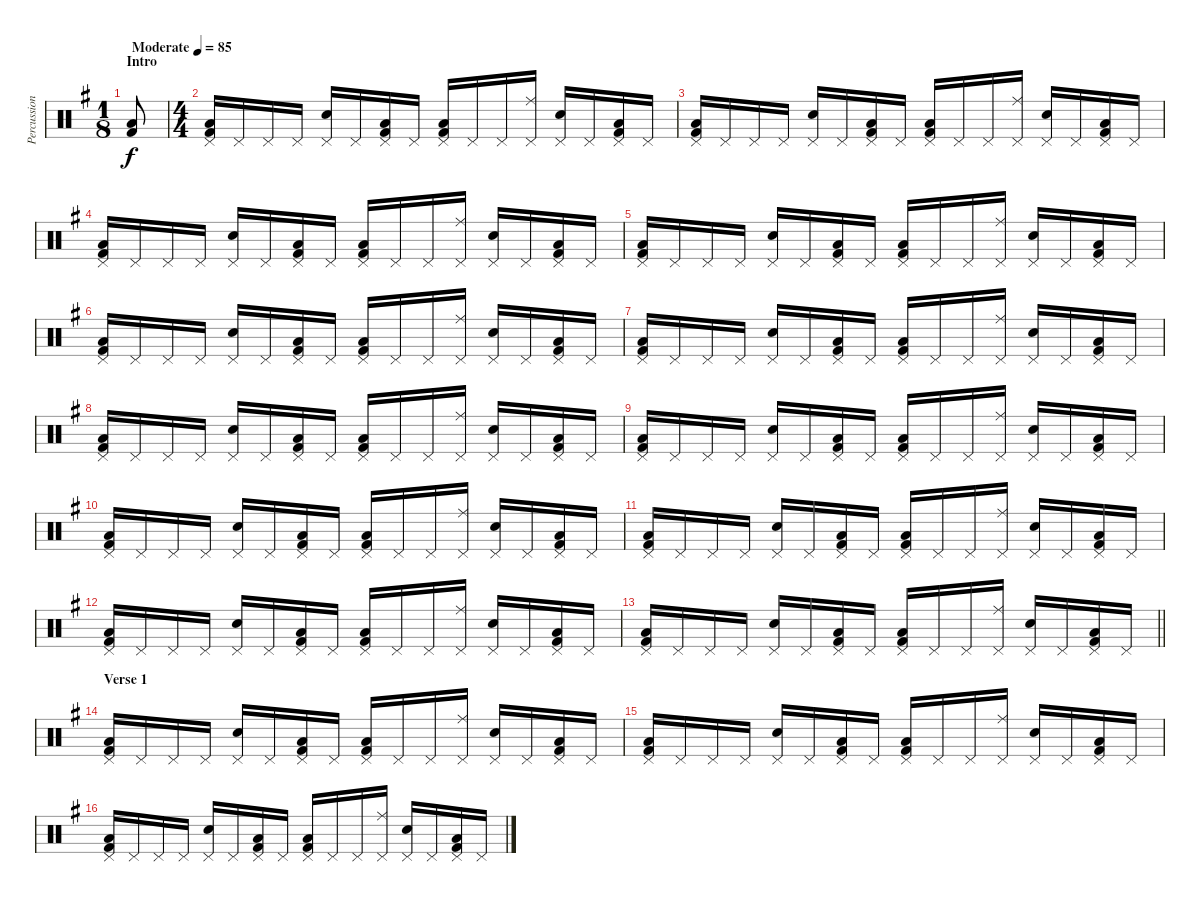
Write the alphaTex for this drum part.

\track ("Percussion" "Percussion") {instrument percussion}
\staff {score}
\articulation defaults
\ts (1 8)
\section ("" "Intro")
\tempo (85 "Moderate")
\clef neutral
\ks g
("Low Floor Tom (hit)" "Kick (hit) 2").8{dy f} |
\ts (4 4)
("Pedal Hi-Hat (hit)" "Low Tom (hit)" "Kick (hit) 2").16 "Pedal Hi-Hat (hit)".16 "Pedal Hi-Hat (hit)".16 "Pedal Hi-Hat (hit)".16 ("Pedal Hi-Hat (hit)" "Electric Snare (hit)").16 "Pedal Hi-Hat (hit)".16 ("Pedal Hi-Hat (hit)" "Low Floor Tom (hit)" "Kick (hit) 2").16 "Pedal Hi-Hat (hit)".16 ("Pedal Hi-Hat (hit)" "Low Tom (hit)" "Kick (hit) 2").16 "Pedal Hi-Hat (hit)".16 "Pedal Hi-Hat (hit)".16 ("Pedal Hi-Hat (hit)" "Ride (middle)").16 ("Pedal Hi-Hat (hit)" "Electric Snare (hit)").16 "Pedal Hi-Hat (hit)".16 ("Pedal Hi-Hat (hit)" "Low Floor Tom (hit)" "Kick (hit) 2").16 "Pedal Hi-Hat (hit)".16 |
("Pedal Hi-Hat (hit)" "Low Tom (hit)" "Kick (hit) 2").16 "Pedal Hi-Hat (hit)".16 "Pedal Hi-Hat (hit)".16 "Pedal Hi-Hat (hit)".16 ("Pedal Hi-Hat (hit)" "Electric Snare (hit)").16 "Pedal Hi-Hat (hit)".16 ("Pedal Hi-Hat (hit)" "Low Floor Tom (hit)" "Kick (hit) 2").16 "Pedal Hi-Hat (hit)".16 ("Pedal Hi-Hat (hit)" "Low Tom (hit)" "Kick (hit) 2").16 "Pedal Hi-Hat (hit)".16 "Pedal Hi-Hat (hit)".16 ("Pedal Hi-Hat (hit)" "Ride (middle)").16 ("Pedal Hi-Hat (hit)" "Electric Snare (hit)").16 "Pedal Hi-Hat (hit)".16 ("Pedal Hi-Hat (hit)" "Low Floor Tom (hit)" "Kick (hit) 2").16 "Pedal Hi-Hat (hit)".16 |
("Pedal Hi-Hat (hit)" "Low Tom (hit)" "Kick (hit) 2").16 "Pedal Hi-Hat (hit)".16 "Pedal Hi-Hat (hit)".16 "Pedal Hi-Hat (hit)".16 ("Pedal Hi-Hat (hit)" "Electric Snare (hit)").16 "Pedal Hi-Hat (hit)".16 ("Pedal Hi-Hat (hit)" "Low Floor Tom (hit)" "Kick (hit) 2").16 "Pedal Hi-Hat (hit)".16 ("Pedal Hi-Hat (hit)" "Low Tom (hit)" "Kick (hit) 2").16 "Pedal Hi-Hat (hit)".16 "Pedal Hi-Hat (hit)".16 ("Pedal Hi-Hat (hit)" "Ride (middle)").16 ("Pedal Hi-Hat (hit)" "Electric Snare (hit)").16 "Pedal Hi-Hat (hit)".16 ("Pedal Hi-Hat (hit)" "Low Floor Tom (hit)" "Kick (hit) 2").16 "Pedal Hi-Hat (hit)".16 |
("Pedal Hi-Hat (hit)" "Low Tom (hit)" "Kick (hit) 2").16 "Pedal Hi-Hat (hit)".16 "Pedal Hi-Hat (hit)".16 "Pedal Hi-Hat (hit)".16 ("Pedal Hi-Hat (hit)" "Electric Snare (hit)").16 "Pedal Hi-Hat (hit)".16 ("Pedal Hi-Hat (hit)" "Low Floor Tom (hit)" "Kick (hit) 2").16 "Pedal Hi-Hat (hit)".16 ("Pedal Hi-Hat (hit)" "Low Tom (hit)" "Kick (hit) 2").16 "Pedal Hi-Hat (hit)".16 "Pedal Hi-Hat (hit)".16 ("Pedal Hi-Hat (hit)" "Ride (middle)").16 ("Pedal Hi-Hat (hit)" "Electric Snare (hit)").16 "Pedal Hi-Hat (hit)".16 ("Pedal Hi-Hat (hit)" "Low Floor Tom (hit)" "Kick (hit) 2").16 "Pedal Hi-Hat (hit)".16 |
("Pedal Hi-Hat (hit)" "Low Tom (hit)" "Kick (hit) 2").16 "Pedal Hi-Hat (hit)".16 "Pedal Hi-Hat (hit)".16 "Pedal Hi-Hat (hit)".16 ("Pedal Hi-Hat (hit)" "Electric Snare (hit)").16 "Pedal Hi-Hat (hit)".16 ("Pedal Hi-Hat (hit)" "Low Floor Tom (hit)" "Kick (hit) 2").16 "Pedal Hi-Hat (hit)".16 ("Pedal Hi-Hat (hit)" "Low Tom (hit)" "Kick (hit) 2").16 "Pedal Hi-Hat (hit)".16 "Pedal Hi-Hat (hit)".16 ("Pedal Hi-Hat (hit)" "Ride (middle)").16 ("Pedal Hi-Hat (hit)" "Electric Snare (hit)").16 "Pedal Hi-Hat (hit)".16 ("Pedal Hi-Hat (hit)" "Low Floor Tom (hit)" "Kick (hit) 2").16 "Pedal Hi-Hat (hit)".16 |
("Pedal Hi-Hat (hit)" "Low Tom (hit)" "Kick (hit) 2").16 "Pedal Hi-Hat (hit)".16 "Pedal Hi-Hat (hit)".16 "Pedal Hi-Hat (hit)".16 ("Pedal Hi-Hat (hit)" "Electric Snare (hit)").16 "Pedal Hi-Hat (hit)".16 ("Pedal Hi-Hat (hit)" "Low Floor Tom (hit)" "Kick (hit) 2").16 "Pedal Hi-Hat (hit)".16 ("Pedal Hi-Hat (hit)" "Low Tom (hit)" "Kick (hit) 2").16 "Pedal Hi-Hat (hit)".16 "Pedal Hi-Hat (hit)".16 ("Pedal Hi-Hat (hit)" "Ride (middle)").16 ("Pedal Hi-Hat (hit)" "Electric Snare (hit)").16 "Pedal Hi-Hat (hit)".16 ("Pedal Hi-Hat (hit)" "Low Floor Tom (hit)" "Kick (hit) 2").16 "Pedal Hi-Hat (hit)".16 |
("Pedal Hi-Hat (hit)" "Low Tom (hit)" "Kick (hit) 2").16 "Pedal Hi-Hat (hit)".16 "Pedal Hi-Hat (hit)".16 "Pedal Hi-Hat (hit)".16 ("Pedal Hi-Hat (hit)" "Electric Snare (hit)").16 "Pedal Hi-Hat (hit)".16 ("Pedal Hi-Hat (hit)" "Low Floor Tom (hit)" "Kick (hit) 2").16 "Pedal Hi-Hat (hit)".16 ("Pedal Hi-Hat (hit)" "Low Tom (hit)" "Kick (hit) 2").16 "Pedal Hi-Hat (hit)".16 "Pedal Hi-Hat (hit)".16 ("Pedal Hi-Hat (hit)" "Ride (middle)").16 ("Pedal Hi-Hat (hit)" "Electric Snare (hit)").16 "Pedal Hi-Hat (hit)".16 ("Pedal Hi-Hat (hit)" "Low Floor Tom (hit)" "Kick (hit) 2").16 "Pedal Hi-Hat (hit)".16 |
("Pedal Hi-Hat (hit)" "Low Tom (hit)" "Kick (hit) 2").16 "Pedal Hi-Hat (hit)".16 "Pedal Hi-Hat (hit)".16 "Pedal Hi-Hat (hit)".16 ("Pedal Hi-Hat (hit)" "Electric Snare (hit)").16 "Pedal Hi-Hat (hit)".16 ("Pedal Hi-Hat (hit)" "Low Floor Tom (hit)" "Kick (hit) 2").16 "Pedal Hi-Hat (hit)".16 ("Pedal Hi-Hat (hit)" "Low Tom (hit)" "Kick (hit) 2").16 "Pedal Hi-Hat (hit)".16 "Pedal Hi-Hat (hit)".16 ("Pedal Hi-Hat (hit)" "Ride (middle)").16 ("Pedal Hi-Hat (hit)" "Electric Snare (hit)").16 "Pedal Hi-Hat (hit)".16 ("Pedal Hi-Hat (hit)" "Low Floor Tom (hit)" "Kick (hit) 2").16 "Pedal Hi-Hat (hit)".16 |
("Pedal Hi-Hat (hit)" "Low Tom (hit)" "Kick (hit) 2").16 "Pedal Hi-Hat (hit)".16 "Pedal Hi-Hat (hit)".16 "Pedal Hi-Hat (hit)".16 ("Pedal Hi-Hat (hit)" "Electric Snare (hit)").16 "Pedal Hi-Hat (hit)".16 ("Pedal Hi-Hat (hit)" "Low Floor Tom (hit)" "Kick (hit) 2").16 "Pedal Hi-Hat (hit)".16 ("Pedal Hi-Hat (hit)" "Low Tom (hit)" "Kick (hit) 2").16 "Pedal Hi-Hat (hit)".16 "Pedal Hi-Hat (hit)".16 ("Pedal Hi-Hat (hit)" "Ride (middle)").16 ("Pedal Hi-Hat (hit)" "Electric Snare (hit)").16 "Pedal Hi-Hat (hit)".16 ("Pedal Hi-Hat (hit)" "Low Floor Tom (hit)" "Kick (hit) 2").16 "Pedal Hi-Hat (hit)".16 |
("Pedal Hi-Hat (hit)" "Low Tom (hit)" "Kick (hit) 2").16 "Pedal Hi-Hat (hit)".16 "Pedal Hi-Hat (hit)".16 "Pedal Hi-Hat (hit)".16 ("Pedal Hi-Hat (hit)" "Electric Snare (hit)").16 "Pedal Hi-Hat (hit)".16 ("Pedal Hi-Hat (hit)" "Low Floor Tom (hit)" "Kick (hit) 2").16 "Pedal Hi-Hat (hit)".16 ("Pedal Hi-Hat (hit)" "Low Tom (hit)" "Kick (hit) 2").16 "Pedal Hi-Hat (hit)".16 "Pedal Hi-Hat (hit)".16 ("Pedal Hi-Hat (hit)" "Ride (middle)").16 ("Pedal Hi-Hat (hit)" "Electric Snare (hit)").16 "Pedal Hi-Hat (hit)".16 ("Pedal Hi-Hat (hit)" "Low Floor Tom (hit)" "Kick (hit) 2").16 "Pedal Hi-Hat (hit)".16 |
("Pedal Hi-Hat (hit)" "Low Tom (hit)" "Kick (hit) 2").16 "Pedal Hi-Hat (hit)".16 "Pedal Hi-Hat (hit)".16 "Pedal Hi-Hat (hit)".16 ("Pedal Hi-Hat (hit)" "Electric Snare (hit)").16 "Pedal Hi-Hat (hit)".16 ("Pedal Hi-Hat (hit)" "Low Floor Tom (hit)" "Kick (hit) 2").16 "Pedal Hi-Hat (hit)".16 ("Pedal Hi-Hat (hit)" "Low Tom (hit)" "Kick (hit) 2").16 "Pedal Hi-Hat (hit)".16 "Pedal Hi-Hat (hit)".16 ("Pedal Hi-Hat (hit)" "Ride (middle)").16 ("Pedal Hi-Hat (hit)" "Electric Snare (hit)").16 "Pedal Hi-Hat (hit)".16 ("Pedal Hi-Hat (hit)" "Low Floor Tom (hit)" "Kick (hit) 2").16 "Pedal Hi-Hat (hit)".16 |
\barLineRight lightlight
("Pedal Hi-Hat (hit)" "Low Tom (hit)" "Kick (hit) 2").16 "Pedal Hi-Hat (hit)".16 "Pedal Hi-Hat (hit)".16 "Pedal Hi-Hat (hit)".16 ("Pedal Hi-Hat (hit)" "Electric Snare (hit)").16 "Pedal Hi-Hat (hit)".16 ("Pedal Hi-Hat (hit)" "Low Floor Tom (hit)" "Kick (hit) 2").16 "Pedal Hi-Hat (hit)".16 ("Pedal Hi-Hat (hit)" "Low Tom (hit)" "Kick (hit) 2").16 "Pedal Hi-Hat (hit)".16 "Pedal Hi-Hat (hit)".16 ("Pedal Hi-Hat (hit)" "Ride (middle)").16 ("Pedal Hi-Hat (hit)" "Electric Snare (hit)").16 "Pedal Hi-Hat (hit)".16 ("Pedal Hi-Hat (hit)" "Low Floor Tom (hit)" "Kick (hit) 2").16 "Pedal Hi-Hat (hit)".16 |
\section ("" "Verse 1")
("Pedal Hi-Hat (hit)" "Low Tom (hit)" "Kick (hit) 2").16 "Pedal Hi-Hat (hit)".16 "Pedal Hi-Hat (hit)".16 "Pedal Hi-Hat (hit)".16 ("Pedal Hi-Hat (hit)" "Electric Snare (hit)").16 "Pedal Hi-Hat (hit)".16 ("Pedal Hi-Hat (hit)" "Low Floor Tom (hit)" "Kick (hit) 2").16 "Pedal Hi-Hat (hit)".16 ("Pedal Hi-Hat (hit)" "Low Tom (hit)" "Kick (hit) 2").16 "Pedal Hi-Hat (hit)".16 "Pedal Hi-Hat (hit)".16 ("Pedal Hi-Hat (hit)" "Ride (middle)").16 ("Pedal Hi-Hat (hit)" "Electric Snare (hit)").16 "Pedal Hi-Hat (hit)".16 ("Pedal Hi-Hat (hit)" "Low Floor Tom (hit)" "Kick (hit) 2").16 "Pedal Hi-Hat (hit)".16 |
("Pedal Hi-Hat (hit)" "Low Tom (hit)" "Kick (hit) 2").16 "Pedal Hi-Hat (hit)".16 "Pedal Hi-Hat (hit)".16 "Pedal Hi-Hat (hit)".16 ("Pedal Hi-Hat (hit)" "Electric Snare (hit)").16 "Pedal Hi-Hat (hit)".16 ("Pedal Hi-Hat (hit)" "Low Floor Tom (hit)" "Kick (hit) 2").16 "Pedal Hi-Hat (hit)".16 ("Pedal Hi-Hat (hit)" "Low Tom (hit)" "Kick (hit) 2").16 "Pedal Hi-Hat (hit)".16 "Pedal Hi-Hat (hit)".16 ("Pedal Hi-Hat (hit)" "Ride (middle)").16 ("Pedal Hi-Hat (hit)" "Electric Snare (hit)").16 "Pedal Hi-Hat (hit)".16 ("Pedal Hi-Hat (hit)" "Low Floor Tom (hit)" "Kick (hit) 2").16 "Pedal Hi-Hat (hit)".16 |
("Pedal Hi-Hat (hit)" "Low Tom (hit)" "Kick (hit) 2").16 "Pedal Hi-Hat (hit)".16 "Pedal Hi-Hat (hit)".16 "Pedal Hi-Hat (hit)".16 ("Pedal Hi-Hat (hit)" "Electric Snare (hit)").16 "Pedal Hi-Hat (hit)".16 ("Pedal Hi-Hat (hit)" "Low Floor Tom (hit)" "Kick (hit) 2").16 "Pedal Hi-Hat (hit)".16 ("Pedal Hi-Hat (hit)" "Low Tom (hit)" "Kick (hit) 2").16 "Pedal Hi-Hat (hit)".16 "Pedal Hi-Hat (hit)".16 ("Pedal Hi-Hat (hit)" "Ride (middle)").16 ("Pedal Hi-Hat (hit)" "Electric Snare (hit)").16 "Pedal Hi-Hat (hit)".16 ("Pedal Hi-Hat (hit)" "Low Floor Tom (hit)" "Kick (hit) 2").16 "Pedal Hi-Hat (hit)".16
